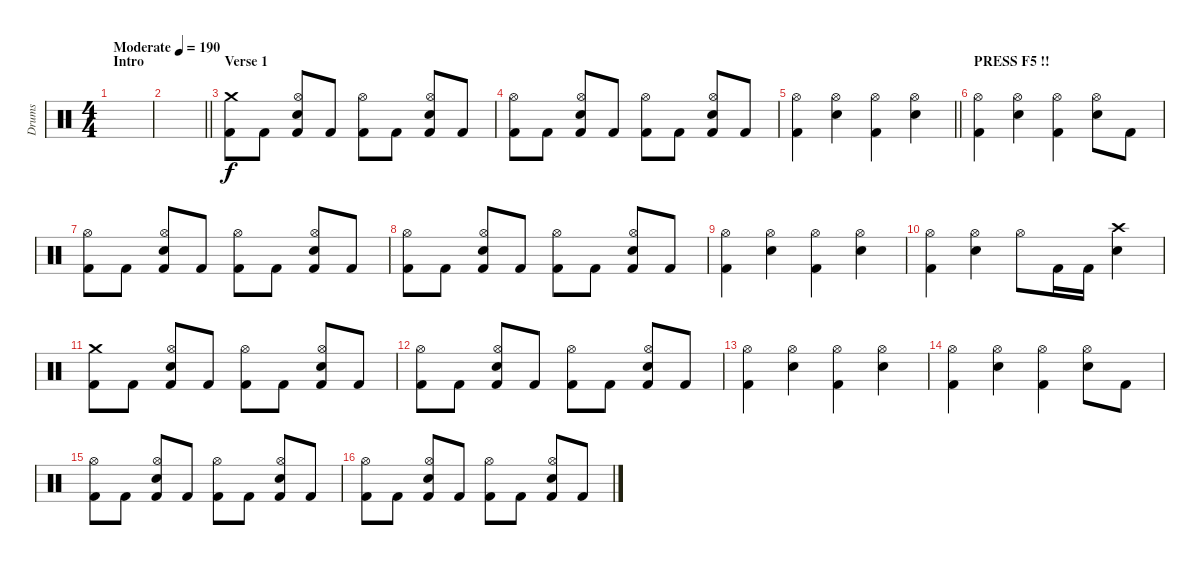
\track ("Drums" "Drums") {instrument percussion}
\staff {score}
\articulation defaults
\ts (4 4)
\section ("" "Intro")
\tempo (190 "Moderate")
\clef neutral
\ks c
|
\barLineRight lightlight
|
\section ("" "Verse 1")
("Crash medium (hit)" "Kick (hit) 2").8 "Kick (hit) 2".8 ("Hi-Hat (open)" "Snare (hit) 2" "Kick (hit) 2").8 "Kick (hit) 2".8 ("Hi-Hat (open)" "Kick (hit) 2").8 "Kick (hit) 2".8 ("Hi-Hat (open)" "Snare (hit) 2" "Kick (hit) 2").8 "Kick (hit) 2".8 |
("Hi-Hat (open)" "Kick (hit) 2").8 "Kick (hit) 2".8 ("Hi-Hat (open)" "Snare (hit) 2" "Kick (hit) 2").8 "Kick (hit) 2".8 ("Hi-Hat (open)" "Kick (hit) 2").8 "Kick (hit) 2".8 ("Hi-Hat (open)" "Snare (hit) 2" "Kick (hit) 2").8 "Kick (hit) 2".8 |
\barLineRight lightlight
("Hi-Hat (open)" "Kick (hit) 2").4 ("Hi-Hat (open)" "Snare (hit) 2").4 ("Hi-Hat (open)" "Kick (hit) 2").4 ("Hi-Hat (open)" "Snare (hit) 2").4 |
\section ("" "PRESS F5 !!")
("Hi-Hat (open)" "Kick (hit) 2").4 ("Hi-Hat (open)" "Snare (hit) 2").4 ("Hi-Hat (open)" "Kick (hit) 2").4 ("Hi-Hat (open)" "Snare (hit) 2").8 "Kick (hit) 2".8 |
("Hi-Hat (open)" "Kick (hit) 2").8 "Kick (hit) 2".8 ("Hi-Hat (open)" "Snare (hit) 2" "Kick (hit) 2").8 "Kick (hit) 2".8 ("Hi-Hat (open)" "Kick (hit) 2").8 "Kick (hit) 2".8 ("Hi-Hat (open)" "Snare (hit) 2" "Kick (hit) 2").8 "Kick (hit) 2".8 |
("Hi-Hat (open)" "Kick (hit) 2").8 "Kick (hit) 2".8 ("Hi-Hat (open)" "Snare (hit) 2" "Kick (hit) 2").8 "Kick (hit) 2".8 ("Hi-Hat (open)" "Kick (hit) 2").8 "Kick (hit) 2".8 ("Hi-Hat (open)" "Snare (hit) 2" "Kick (hit) 2").8 "Kick (hit) 2".8 |
("Hi-Hat (open)" "Kick (hit) 2").4 ("Hi-Hat (open)" "Snare (hit) 2").4 ("Hi-Hat (open)" "Kick (hit) 2").4 ("Hi-Hat (open)" "Snare (hit) 2").4 |
("Hi-Hat (open)" "Kick (hit) 2").4 ("Hi-Hat (open)" "Snare (hit) 2").4 "Hi-Hat (open)".8 "Kick (hit) 2".16 "Kick (hit) 2".16 ("Crash high (hit)" "Snare (hit) 2").4 |
("Crash medium (hit)" "Kick (hit) 2").8 "Kick (hit) 2".8 ("Hi-Hat (open)" "Snare (hit) 2" "Kick (hit) 2").8 "Kick (hit) 2".8 ("Hi-Hat (open)" "Kick (hit) 2").8 "Kick (hit) 2".8 ("Hi-Hat (open)" "Snare (hit) 2" "Kick (hit) 2").8 "Kick (hit) 2".8 |
("Hi-Hat (open)" "Kick (hit) 2").8 "Kick (hit) 2".8 ("Hi-Hat (open)" "Snare (hit) 2" "Kick (hit) 2").8 "Kick (hit) 2".8 ("Hi-Hat (open)" "Kick (hit) 2").8 "Kick (hit) 2".8 ("Hi-Hat (open)" "Snare (hit) 2" "Kick (hit) 2").8 "Kick (hit) 2".8 |
("Hi-Hat (open)" "Kick (hit) 2").4 ("Hi-Hat (open)" "Snare (hit) 2").4 ("Hi-Hat (open)" "Kick (hit) 2").4 ("Hi-Hat (open)" "Snare (hit) 2").4 |
("Hi-Hat (open)" "Kick (hit) 2").4 ("Hi-Hat (open)" "Snare (hit) 2").4 ("Hi-Hat (open)" "Kick (hit) 2").4 ("Hi-Hat (open)" "Snare (hit) 2").8 "Kick (hit) 2".8 |
("Hi-Hat (open)" "Kick (hit) 2").8 "Kick (hit) 2".8 ("Hi-Hat (open)" "Snare (hit) 2" "Kick (hit) 2").8 "Kick (hit) 2".8 ("Hi-Hat (open)" "Kick (hit) 2").8 "Kick (hit) 2".8 ("Hi-Hat (open)" "Snare (hit) 2" "Kick (hit) 2").8 "Kick (hit) 2".8 |
("Hi-Hat (open)" "Kick (hit) 2").8 "Kick (hit) 2".8 ("Hi-Hat (open)" "Snare (hit) 2" "Kick (hit) 2").8 "Kick (hit) 2".8 ("Hi-Hat (open)" "Kick (hit) 2").8 "Kick (hit) 2".8 ("Hi-Hat (open)" "Snare (hit) 2" "Kick (hit) 2").8 "Kick (hit) 2".8
